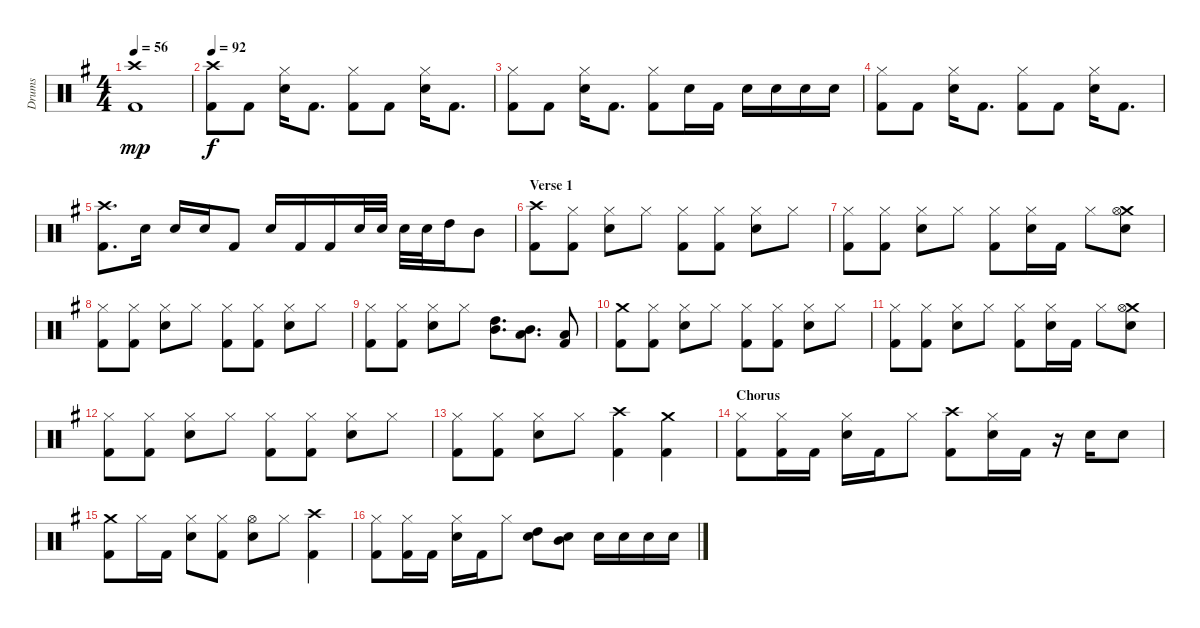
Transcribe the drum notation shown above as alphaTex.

\track ("Drums" "Drums") {instrument percussion}
\staff {score}
\articulation defaults
\ts (4 4)
\tempo 56
\clef neutral
\ks eminor
("Crash high (hit)" "Kick (hit) 2").1{dy mp} |
\tempo 92
("Crash high (hit)" "Kick (hit) 2").8{dy f} "Kick (hit) 2".8 ("Hi-Hat (closed)" "Snare (hit) 2").16 "Kick (hit) 2".8{d} ("Hi-Hat (closed)" "Kick (hit) 2").8 "Kick (hit) 2".8 ("Hi-Hat (closed)" "Snare (hit) 2").16 "Kick (hit) 2".8{d} |
("Hi-Hat (closed)" "Kick (hit) 2").8 "Kick (hit) 2".8 ("Hi-Hat (closed)" "Snare (hit) 2").16 "Kick (hit) 2".8{d} ("Hi-Hat (closed)" "Kick (hit) 2").8 "Snare (hit) 2".16 "Kick (hit) 2".16 "Snare (hit) 2".16 "Snare (hit) 2".16 "Snare (hit) 2".16 "Snare (hit) 2".16 |
("Hi-Hat (closed)" "Kick (hit) 2").8 "Kick (hit) 2".8 ("Hi-Hat (closed)" "Snare (hit) 2").16 "Kick (hit) 2".8{d} ("Hi-Hat (closed)" "Kick (hit) 2").8 "Kick (hit) 2".8 ("Hi-Hat (closed)" "Snare (hit) 2").16 "Kick (hit) 2".8{d} |
("Crash high (hit)" "Kick (hit) 2").8{d} "Snare (hit) 2".16 "Snare (hit) 2".16 "Snare (hit) 2".16 "Kick (hit) 2".8 "Snare (hit) 2".16 "Kick (hit) 2".16 "Kick (hit) 2".16 "Snare (hit) 2".32 "Snare (hit) 2".32 "Snare (hit) 2".32 "Snare (hit) 2".32 "High Tom (hit)".16 "Mid Tom (hit)".8 |
\section ("" "Verse 1")
("Crash high (hit)" "Kick (hit) 2").8 ("Hi-Hat (closed)" "Kick (hit) 2").8 ("Hi-Hat (closed)" "Snare (hit) 2").8 "Hi-Hat (closed)".8 ("Hi-Hat (closed)" "Kick (hit) 2").8 ("Hi-Hat (closed)" "Kick (hit) 2").8 ("Hi-Hat (closed)" "Snare (hit) 2").8 "Hi-Hat (closed)".8 |
("Hi-Hat (closed)" "Kick (hit) 2").8 ("Hi-Hat (closed)" "Kick (hit) 2").8 ("Hi-Hat (closed)" "Snare (hit) 2").8 "Hi-Hat (closed)".8 ("Hi-Hat (closed)" "Kick (hit) 2").8 ("Hi-Hat (closed)" "Snare (hit) 2").16 "Kick (hit) 2".16 "Hi-Hat (closed)".8 ("Crash medium (hit)" "Hi-Hat (open)" "Snare (hit) 2").8 |
("Hi-Hat (closed)" "Kick (hit) 2").8 ("Hi-Hat (closed)" "Kick (hit) 2").8 ("Hi-Hat (closed)" "Snare (hit) 2").8 "Hi-Hat (closed)".8 ("Hi-Hat (closed)" "Kick (hit) 2").8 ("Hi-Hat (closed)" "Kick (hit) 2").8 ("Hi-Hat (closed)" "Snare (hit) 2").8 "Hi-Hat (closed)".8 |
("Hi-Hat (closed)" "Kick (hit) 2").8 ("Hi-Hat (closed)" "Kick (hit) 2").8 ("Hi-Hat (closed)" "Snare (hit) 2").8 "Hi-Hat (closed)".8 ("High Tom (hit)" "Mid Tom (hit)").8{d} ("Mid Tom (hit)" "Low Tom (hit)").8{d} ("Low Tom (hit)" "Kick (hit) 2").8 |
("Crash medium (hit)" "Kick (hit) 2").8 ("Hi-Hat (closed)" "Kick (hit) 2").8 ("Hi-Hat (closed)" "Snare (hit) 2").8 "Hi-Hat (closed)".8 ("Hi-Hat (closed)" "Kick (hit) 2").8 ("Hi-Hat (closed)" "Kick (hit) 2").8 ("Hi-Hat (closed)" "Snare (hit) 2").8 "Hi-Hat (closed)".8 |
("Hi-Hat (closed)" "Kick (hit) 2").8 ("Hi-Hat (closed)" "Kick (hit) 2").8 ("Hi-Hat (closed)" "Snare (hit) 2").8 "Hi-Hat (closed)".8 ("Hi-Hat (closed)" "Kick (hit) 2").8 ("Hi-Hat (closed)" "Snare (hit) 2").16 "Kick (hit) 2".16 "Hi-Hat (closed)".8 ("Crash medium (hit)" "Hi-Hat (open)" "Snare (hit) 2").8 |
("Hi-Hat (closed)" "Kick (hit) 2").8 ("Hi-Hat (closed)" "Kick (hit) 2").8 ("Hi-Hat (closed)" "Snare (hit) 2").8 "Hi-Hat (closed)".8 ("Hi-Hat (closed)" "Kick (hit) 2").8 ("Hi-Hat (closed)" "Kick (hit) 2").8 ("Hi-Hat (closed)" "Snare (hit) 2").8 "Hi-Hat (closed)".8 |
("Hi-Hat (closed)" "Kick (hit) 2").8 ("Hi-Hat (closed)" "Kick (hit) 2").8 ("Hi-Hat (closed)" "Snare (hit) 2").8 "Hi-Hat (closed)".8 ("Crash high (hit)" "Kick (hit) 2").4 ("Crash medium (hit)" "Kick (hit) 2").4 |
\section ("" "Chorus")
("Hi-Hat (closed)" "Kick (hit) 2").8 ("Hi-Hat (closed)" "Kick (hit) 2").16 "Kick (hit) 2".16 ("Hi-Hat (closed)" "Snare (hit) 2").16 "Kick (hit) 2".16 "Hi-Hat (closed)".8 ("Crash high (hit)" "Kick (hit) 2").8 ("Hi-Hat (closed)" "Snare (hit) 2").16 "Kick (hit) 2".16 r.16 "Snare (hit) 2".16 "Snare (hit) 2".8 |
("Crash medium (hit)" "Kick (hit) 2").8 "Hi-Hat (closed)".16 "Kick (hit) 2".16 ("Hi-Hat (closed)" "Snare (hit) 2").8 ("Hi-Hat (closed)" "Kick (hit) 2").8 ("Hi-Hat (open)" "Snare (hit) 2").8 "Hi-Hat (closed)".8 ("Crash high (hit)" "Kick (hit) 2").4 |
("Hi-Hat (closed)" "Kick (hit) 2").8 ("Hi-Hat (closed)" "Kick (hit) 2").16 "Kick (hit) 2".16 ("Hi-Hat (closed)" "Snare (hit) 2").16 "Kick (hit) 2".16 "Hi-Hat (closed)".8 ("High Tom (hit)" "Snare (hit) 2").8 ("Mid Tom (hit)" "Snare (hit) 2").8 "Snare (hit) 2".16 "Snare (hit) 2".16 "Snare (hit) 2".16 "Snare (hit) 2".16
